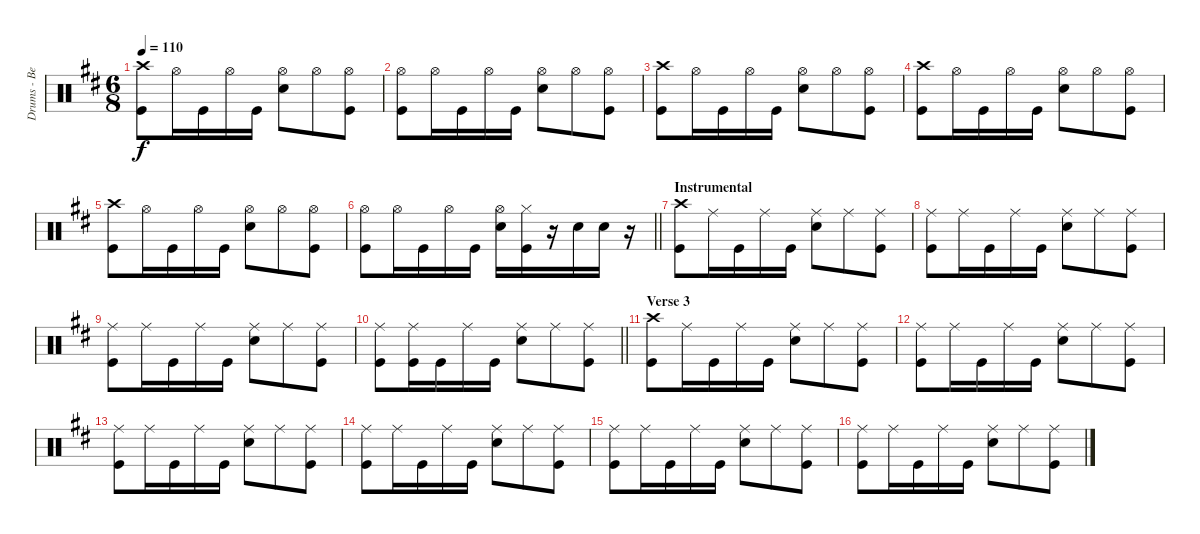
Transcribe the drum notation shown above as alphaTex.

\track ("Drums - Ben Johnston" "Drums - Be") {instrument percussion}
\staff {score}
\articulation defaults
\ts (6 8)
\tempo 110
\clef neutral
\ks d
("Crash high (hit)" "Kick (hit)").8{dy f} "Hi-Hat (open)".16 "Kick (hit)".16 "Hi-Hat (open)".16 "Kick (hit)".16 ("Hi-Hat (open)" "Snare (hit) 2").8 "Hi-Hat (open)".8 ("Hi-Hat (open)" "Kick (hit)").8 |
("Hi-Hat (open)" "Kick (hit)").8 "Hi-Hat (open)".16 "Kick (hit)".16 "Hi-Hat (open)".16 "Kick (hit)".16 ("Hi-Hat (open)" "Snare (hit) 2").8 "Hi-Hat (open)".8 ("Hi-Hat (open)" "Kick (hit)").8 |
("Crash high (hit)" "Kick (hit)").8 "Hi-Hat (open)".16 "Kick (hit)".16 "Hi-Hat (open)".16 "Kick (hit)".16 ("Hi-Hat (open)" "Snare (hit) 2").8 "Hi-Hat (open)".8 ("Hi-Hat (open)" "Kick (hit)").8 |
("Crash high (hit)" "Kick (hit)").8 "Hi-Hat (open)".16 "Kick (hit)".16 "Hi-Hat (open)".16 "Kick (hit)".16 ("Hi-Hat (open)" "Snare (hit) 2").8 "Hi-Hat (open)".8 ("Hi-Hat (open)" "Kick (hit)").8 |
("Crash high (hit)" "Kick (hit)").8 "Hi-Hat (open)".16 "Kick (hit)".16 "Hi-Hat (open)".16 "Kick (hit)".16 ("Hi-Hat (open)" "Snare (hit) 2").8 "Hi-Hat (open)".8 ("Hi-Hat (open)" "Kick (hit)").8 |
\barLineRight lightlight
("Hi-Hat (open)" "Kick (hit)").8 "Hi-Hat (open)".16 "Kick (hit)".16 "Hi-Hat (open)".16 "Kick (hit)".16 ("Hi-Hat (open)" "Snare (hit) 2").16 ("Hi-Hat (closed)" "Kick (hit)").16 r.16 "Snare (hit) 2".16 "Snare (hit) 2".16 r.16 |
\section ("" "Instrumental")
("Crash high (hit)" "Kick (hit)").8 "Ride (middle)".16 "Kick (hit)".16 "Ride (middle)".16 "Kick (hit)".16 ("Ride (middle)" "Snare (hit) 2").8 "Ride (middle)".8 ("Ride (middle)" "Kick (hit)").8 |
("Ride (middle)" "Kick (hit)").8 "Ride (middle)".16 "Kick (hit)".16 "Ride (middle)".16 "Kick (hit)".16 ("Ride (middle)" "Snare (hit) 2").8 "Ride (middle)".8 ("Ride (middle)" "Kick (hit)").8 |
("Ride (middle)" "Kick (hit)").8 "Ride (middle)".16 "Kick (hit)".16 "Ride (middle)".16 "Kick (hit)".16 ("Ride (middle)" "Snare (hit) 2").8 "Ride (middle)".8 ("Ride (middle)" "Kick (hit)").8 |
\barLineRight lightlight
("Ride (middle)" "Kick (hit)").8 ("Ride (middle)" "Kick (hit)").16 "Kick (hit)".16 "Ride (middle)".16 "Kick (hit)".16 ("Ride (middle)" "Snare (hit) 2").8 "Ride (middle)".8 ("Ride (middle)" "Kick (hit)").8 |
\section ("" "Verse 3")
("Crash high (hit)" "Kick (hit)").8 "Ride (middle)".16 "Kick (hit)".16 "Ride (middle)".16 "Kick (hit)".16 ("Ride (middle)" "Snare (hit) 2").8 "Ride (middle)".8 ("Ride (middle)" "Kick (hit)").8 |
("Ride (middle)" "Kick (hit)").8 "Ride (middle)".16 "Kick (hit)".16 "Ride (middle)".16 "Kick (hit)".16 ("Ride (middle)" "Snare (hit) 2").8 "Ride (middle)".8 ("Ride (middle)" "Kick (hit)").8 |
("Ride (middle)" "Kick (hit)").8 "Ride (middle)".16 "Kick (hit)".16 "Ride (middle)".16 "Kick (hit)".16 ("Ride (middle)" "Snare (hit) 2").8 "Ride (middle)".8 ("Ride (middle)" "Kick (hit)").8 |
("Ride (middle)" "Kick (hit)").8 "Ride (middle)".16 "Kick (hit)".16 "Ride (middle)".16 "Kick (hit)".16 ("Ride (middle)" "Snare (hit) 2").8 "Ride (middle)".8 ("Ride (middle)" "Kick (hit)").8 |
("Ride (middle)" "Kick (hit)").8 "Ride (middle)".16 "Kick (hit)".16 "Ride (middle)".16 "Kick (hit)".16 ("Ride (middle)" "Snare (hit) 2").8 "Ride (middle)".8 ("Ride (middle)" "Kick (hit)").8 |
("Ride (middle)" "Kick (hit)").8 "Ride (middle)".16 "Kick (hit)".16 "Ride (middle)".16 "Kick (hit)".16 ("Ride (middle)" "Snare (hit) 2").8 "Ride (middle)".8 ("Ride (middle)" "Kick (hit)").8
